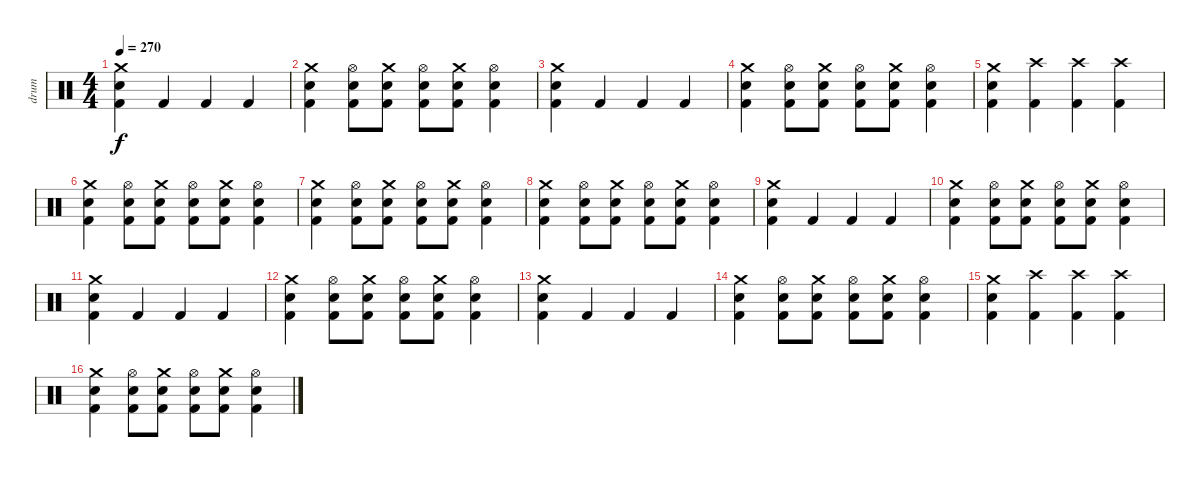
\track ("drum" "drum") {instrument percussion}
\staff {score}
\articulation defaults
\ts (4 4)
\tempo 270
\clef neutral
\ks c
("Kick (hit) 2" "Snare (hit) 2" "Crash medium (hit)").4{dy f} "Kick (hit) 2".4 "Kick (hit) 2".4 "Kick (hit) 2".4 |
("Kick (hit) 2" "Snare (hit) 2" "Crash medium (hit)").4 ("Kick (hit) 2" "Snare (hit) 2" "Hi-Hat (open)").8 ("Kick (hit) 2" "Snare (hit) 2" "Crash medium (hit)").8 ("Kick (hit) 2" "Snare (hit) 2" "Hi-Hat (open)").8 ("Kick (hit) 2" "Snare (hit) 2" "Crash medium (hit)").8 ("Kick (hit) 2" "Snare (hit) 2" "Hi-Hat (open)").4 |
("Kick (hit) 2" "Snare (hit) 2" "Crash medium (hit)").4 "Kick (hit) 2".4 "Kick (hit) 2".4 "Kick (hit) 2".4 |
("Kick (hit) 2" "Snare (hit) 2" "Crash medium (hit)").4 ("Kick (hit) 2" "Snare (hit) 2" "Hi-Hat (open)").8 ("Kick (hit) 2" "Snare (hit) 2" "Crash medium (hit)").8 ("Kick (hit) 2" "Snare (hit) 2" "Hi-Hat (open)").8 ("Kick (hit) 2" "Snare (hit) 2" "Crash medium (hit)").8 ("Kick (hit) 2" "Snare (hit) 2" "Hi-Hat (open)").4 |
("Kick (hit) 2" "Snare (hit) 2" "Crash medium (hit)").4 ("Kick (hit) 2" "Crash high (hit)").4 ("Kick (hit) 2" "Crash high (hit)").4 ("Kick (hit) 2" "Crash high (hit)").4 |
("Kick (hit) 2" "Snare (hit) 2" "Crash medium (hit)").4 ("Kick (hit) 2" "Snare (hit) 2" "Hi-Hat (open)").8 ("Kick (hit) 2" "Snare (hit) 2" "Crash medium (hit)").8 ("Kick (hit) 2" "Snare (hit) 2" "Hi-Hat (open)").8 ("Kick (hit) 2" "Snare (hit) 2" "Crash medium (hit)").8 ("Kick (hit) 2" "Snare (hit) 2" "Hi-Hat (open)").4 |
("Kick (hit) 2" "Snare (hit) 2" "Crash medium (hit)").4 ("Kick (hit) 2" "Snare (hit) 2" "Hi-Hat (open)").8 ("Kick (hit) 2" "Snare (hit) 2" "Crash medium (hit)").8 ("Kick (hit) 2" "Snare (hit) 2" "Hi-Hat (open)").8 ("Kick (hit) 2" "Snare (hit) 2" "Crash medium (hit)").8 ("Kick (hit) 2" "Snare (hit) 2" "Hi-Hat (open)").4 |
("Kick (hit) 2" "Snare (hit) 2" "Crash medium (hit)").4 ("Kick (hit) 2" "Snare (hit) 2" "Hi-Hat (open)").8 ("Kick (hit) 2" "Snare (hit) 2" "Crash medium (hit)").8 ("Kick (hit) 2" "Snare (hit) 2" "Hi-Hat (open)").8 ("Kick (hit) 2" "Snare (hit) 2" "Crash medium (hit)").8 ("Kick (hit) 2" "Snare (hit) 2" "Hi-Hat (open)").4 |
("Kick (hit) 2" "Snare (hit) 2" "Crash medium (hit)").4 "Kick (hit) 2".4 "Kick (hit) 2".4 "Kick (hit) 2".4 |
("Kick (hit) 2" "Snare (hit) 2" "Crash medium (hit)").4 ("Kick (hit) 2" "Snare (hit) 2" "Hi-Hat (open)").8 ("Kick (hit) 2" "Snare (hit) 2" "Crash medium (hit)").8 ("Kick (hit) 2" "Snare (hit) 2" "Hi-Hat (open)").8 ("Kick (hit) 2" "Snare (hit) 2" "Crash medium (hit)").8 ("Kick (hit) 2" "Snare (hit) 2" "Hi-Hat (open)").4 |
("Kick (hit) 2" "Snare (hit) 2" "Crash medium (hit)").4 "Kick (hit) 2".4 "Kick (hit) 2".4 "Kick (hit) 2".4 |
("Kick (hit) 2" "Snare (hit) 2" "Crash medium (hit)").4 ("Kick (hit) 2" "Snare (hit) 2" "Hi-Hat (open)").8 ("Kick (hit) 2" "Snare (hit) 2" "Crash medium (hit)").8 ("Kick (hit) 2" "Snare (hit) 2" "Hi-Hat (open)").8 ("Kick (hit) 2" "Snare (hit) 2" "Crash medium (hit)").8 ("Kick (hit) 2" "Snare (hit) 2" "Hi-Hat (open)").4 |
("Kick (hit) 2" "Snare (hit) 2" "Crash medium (hit)").4 "Kick (hit) 2".4 "Kick (hit) 2".4 "Kick (hit) 2".4 |
("Kick (hit) 2" "Snare (hit) 2" "Crash medium (hit)").4 ("Kick (hit) 2" "Snare (hit) 2" "Hi-Hat (open)").8 ("Kick (hit) 2" "Snare (hit) 2" "Crash medium (hit)").8 ("Kick (hit) 2" "Snare (hit) 2" "Hi-Hat (open)").8 ("Kick (hit) 2" "Snare (hit) 2" "Crash medium (hit)").8 ("Kick (hit) 2" "Snare (hit) 2" "Hi-Hat (open)").4 |
("Kick (hit) 2" "Snare (hit) 2" "Crash medium (hit)").4 ("Kick (hit) 2" "Crash high (hit)").4 ("Kick (hit) 2" "Crash high (hit)").4 ("Kick (hit) 2" "Crash high (hit)").4 |
("Kick (hit) 2" "Snare (hit) 2" "Crash medium (hit)").4 ("Kick (hit) 2" "Snare (hit) 2" "Hi-Hat (open)").8 ("Kick (hit) 2" "Snare (hit) 2" "Crash medium (hit)").8 ("Kick (hit) 2" "Snare (hit) 2" "Hi-Hat (open)").8 ("Kick (hit) 2" "Snare (hit) 2" "Crash medium (hit)").8 ("Kick (hit) 2" "Snare (hit) 2" "Hi-Hat (open)").4
